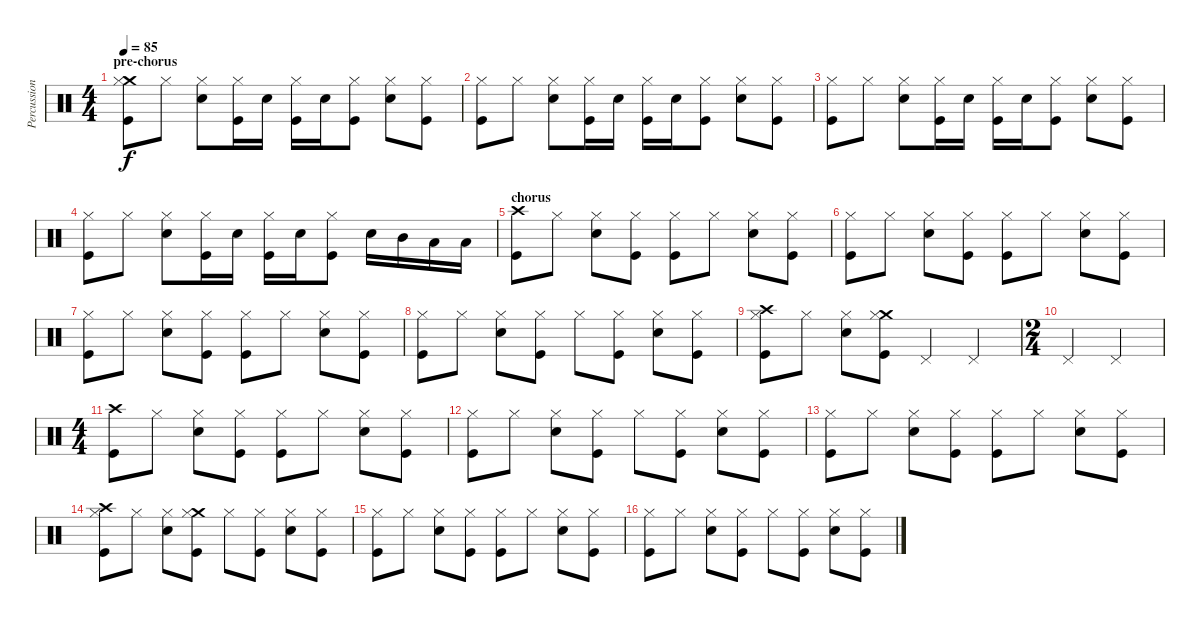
\track ("Percussion" "Percussion") {instrument percussion}
\staff {score}
\articulation defaults
\ts (4 4)
\section ("" "pre-chorus")
\tempo 85
\clef neutral
\ks c
("Crash medium (hit)" "Hi-Hat (closed)" "Kick (hit)").8{dy f} "Hi-Hat (closed)".8 ("Hi-Hat (closed)" "Snare (hit) 2").8 ("Hi-Hat (closed)" "Kick (hit)").16 "Snare (hit) 2".16 ("Hi-Hat (closed)" "Kick (hit)").16 "Snare (hit) 2".16 ("Hi-Hat (closed)" "Kick (hit)").8 ("Hi-Hat (closed)" "Snare (hit) 2").8 ("Hi-Hat (closed)" "Kick (hit)").8 |
("Hi-Hat (closed)" "Kick (hit)").8 "Hi-Hat (closed)".8 ("Hi-Hat (closed)" "Snare (hit) 2").8 ("Hi-Hat (closed)" "Kick (hit)").16 "Snare (hit) 2".16 ("Hi-Hat (closed)" "Kick (hit)").16 "Snare (hit) 2".16 ("Hi-Hat (closed)" "Kick (hit)").8 ("Hi-Hat (closed)" "Snare (hit) 2").8 ("Hi-Hat (closed)" "Kick (hit)").8 |
("Hi-Hat (closed)" "Kick (hit)").8 "Hi-Hat (closed)".8 ("Hi-Hat (closed)" "Snare (hit) 2").8 ("Hi-Hat (closed)" "Kick (hit)").16 "Snare (hit) 2".16 ("Hi-Hat (closed)" "Kick (hit)").16 "Snare (hit) 2".16 ("Hi-Hat (closed)" "Kick (hit)").8 ("Hi-Hat (closed)" "Snare (hit) 2").8 ("Hi-Hat (closed)" "Kick (hit)").8 |
("Hi-Hat (closed)" "Kick (hit)").8 "Hi-Hat (closed)".8 ("Hi-Hat (closed)" "Snare (hit) 2").8 ("Hi-Hat (closed)" "Kick (hit)").16 "Snare (hit) 2".16 ("Hi-Hat (closed)" "Kick (hit)").16 "Snare (hit) 2".16 ("Hi-Hat (closed)" "Kick (hit)").8 "Snare (hit) 2".16 "Mid Tom (hit)".16 "Low Tom (hit)".16 "Low Tom (hit)".16 |
\section ("" "chorus")
("Crash high (hit)" "Kick (hit)").8 "Hi-Hat (closed)".8 ("Hi-Hat (closed)" "Snare (hit) 2").8 ("Hi-Hat (closed)" "Kick (hit)").8 ("Hi-Hat (closed)" "Kick (hit)").8 "Hi-Hat (closed)".8 ("Hi-Hat (closed)" "Snare (hit) 2").8 ("Hi-Hat (closed)" "Kick (hit)").8 |
("Hi-Hat (closed)" "Kick (hit)").8 "Hi-Hat (closed)".8 ("Hi-Hat (closed)" "Snare (hit) 2").8 ("Hi-Hat (closed)" "Kick (hit)").8 ("Hi-Hat (closed)" "Kick (hit)").8 "Hi-Hat (closed)".8 ("Hi-Hat (closed)" "Snare (hit) 2").8 ("Hi-Hat (closed)" "Kick (hit)").8 |
("Hi-Hat (closed)" "Kick (hit)").8 "Hi-Hat (closed)".8 ("Hi-Hat (closed)" "Snare (hit) 2").8 ("Hi-Hat (closed)" "Kick (hit)").8 ("Hi-Hat (closed)" "Kick (hit)").8 "Hi-Hat (closed)".8 ("Hi-Hat (closed)" "Snare (hit) 2").8 ("Hi-Hat (closed)" "Kick (hit)").8 |
("Hi-Hat (closed)" "Kick (hit)").8 "Hi-Hat (closed)".8 ("Hi-Hat (closed)" "Snare (hit) 2").8 ("Hi-Hat (closed)" "Kick (hit)").8 "Hi-Hat (closed)".8 ("Hi-Hat (closed)" "Kick (hit)").8 ("Hi-Hat (closed)" "Snare (hit) 2").8 ("Hi-Hat (closed)" "Kick (hit)").8 |
("Crash high (hit)" "Hi-Hat (closed)" "Kick (hit)").8 "Hi-Hat (closed)".8 ("Hi-Hat (closed)" "Snare (hit) 2").8 ("Crash medium (hit)" "Hi-Hat (closed)" "Kick (hit)").8 "Pedal Hi-Hat (hit)".4{volume 12} "Pedal Hi-Hat (hit)".4 |
\ts (2 4)
"Pedal Hi-Hat (hit)".4 "Pedal Hi-Hat (hit)".4 |
\ts (4 4)
("Crash high (hit)" "Kick (hit)").8{volume 16} "Hi-Hat (closed)".8 ("Hi-Hat (closed)" "Snare (hit) 2").8 ("Hi-Hat (closed)" "Kick (hit)").8 ("Hi-Hat (closed)" "Kick (hit)").8 "Hi-Hat (closed)".8 ("Hi-Hat (closed)" "Snare (hit) 2").8 ("Hi-Hat (closed)" "Kick (hit)").8 |
("Hi-Hat (closed)" "Kick (hit)").8 "Hi-Hat (closed)".8 ("Hi-Hat (closed)" "Snare (hit) 2").8 ("Hi-Hat (closed)" "Kick (hit)").8 "Hi-Hat (closed)".8 ("Hi-Hat (closed)" "Kick (hit)").8 ("Hi-Hat (closed)" "Snare (hit) 2").8 ("Hi-Hat (closed)" "Kick (hit)").8 |
("Hi-Hat (closed)" "Kick (hit)").8 "Hi-Hat (closed)".8 ("Hi-Hat (closed)" "Snare (hit) 2").8 ("Hi-Hat (closed)" "Kick (hit)").8 ("Hi-Hat (closed)" "Kick (hit)").8 "Hi-Hat (closed)".8 ("Hi-Hat (closed)" "Snare (hit) 2").8 ("Hi-Hat (closed)" "Kick (hit)").8 |
("Crash high (hit)" "Hi-Hat (closed)" "Kick (hit)").8 "Hi-Hat (closed)".8 ("Hi-Hat (closed)" "Snare (hit) 2").8 ("Crash medium (hit)" "Hi-Hat (closed)" "Kick (hit)").8 "Hi-Hat (closed)".8 ("Hi-Hat (closed)" "Kick (hit)").8 ("Hi-Hat (closed)" "Snare (hit) 2").8 ("Hi-Hat (closed)" "Kick (hit)").8 |
("Hi-Hat (closed)" "Kick (hit)").8 "Hi-Hat (closed)".8 ("Hi-Hat (closed)" "Snare (hit) 2").8 ("Hi-Hat (closed)" "Kick (hit)").8 ("Hi-Hat (closed)" "Kick (hit)").8 "Hi-Hat (closed)".8 ("Hi-Hat (closed)" "Snare (hit) 2").8 ("Hi-Hat (closed)" "Kick (hit)").8 |
("Hi-Hat (closed)" "Kick (hit)").8 "Hi-Hat (closed)".8 ("Hi-Hat (closed)" "Snare (hit) 2").8 ("Hi-Hat (closed)" "Kick (hit)").8 "Hi-Hat (closed)".8 ("Hi-Hat (closed)" "Kick (hit)").8 ("Hi-Hat (closed)" "Snare (hit) 2").8 ("Hi-Hat (closed)" "Kick (hit)").8
